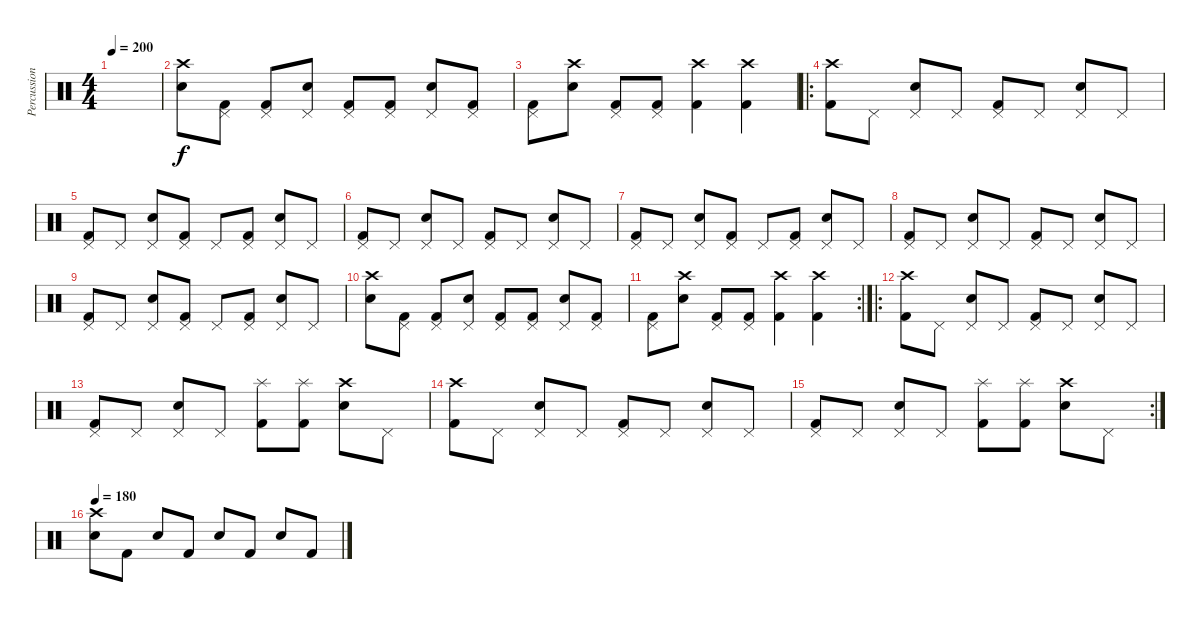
\track ("Percussion" "Percussion") {instrument percussion}
\staff {score}
\articulation defaults
\ts (4 4)
\tempo 200
\clef neutral
\ks c
|
("Electric Snare (hit)" "Crash high (hit)").8 ("Kick (hit) 2" "Pedal Hi-Hat (hit)").8 ("Kick (hit) 2" "Pedal Hi-Hat (hit)").8 ("Electric Snare (hit)" "Pedal Hi-Hat (hit)").8 ("Kick (hit) 2" "Pedal Hi-Hat (hit)").8 ("Kick (hit) 2" "Pedal Hi-Hat (hit)").8 ("Electric Snare (hit)" "Pedal Hi-Hat (hit)").8 ("Kick (hit) 2" "Pedal Hi-Hat (hit)").8 |
("Kick (hit) 2" "Pedal Hi-Hat (hit)").8 ("Electric Snare (hit)" "Crash high (hit)").8 ("Kick (hit) 2" "Pedal Hi-Hat (hit)").8 ("Kick (hit) 2" "Pedal Hi-Hat (hit)").8 ("Kick (hit) 2" "Crash high (hit)").4 ("Kick (hit) 2" "Crash high (hit)").4 |
\ro
("Kick (hit) 2" "Crash high (hit)").8 "Pedal Hi-Hat (hit)".8 ("Electric Snare (hit)" "Pedal Hi-Hat (hit)").8 "Pedal Hi-Hat (hit)".8 ("Kick (hit) 2" "Pedal Hi-Hat (hit)").8 "Pedal Hi-Hat (hit)".8 ("Electric Snare (hit)" "Pedal Hi-Hat (hit)").8 "Pedal Hi-Hat (hit)".8 |
("Kick (hit) 2" "Pedal Hi-Hat (hit)").8 "Pedal Hi-Hat (hit)".8 ("Electric Snare (hit)" "Pedal Hi-Hat (hit)").8 ("Kick (hit) 2" "Pedal Hi-Hat (hit)").8 "Pedal Hi-Hat (hit)".8 ("Kick (hit) 2" "Pedal Hi-Hat (hit)").8 ("Electric Snare (hit)" "Pedal Hi-Hat (hit)").8 "Pedal Hi-Hat (hit)".8 |
("Kick (hit) 2" "Pedal Hi-Hat (hit)").8 "Pedal Hi-Hat (hit)".8 ("Electric Snare (hit)" "Pedal Hi-Hat (hit)").8 "Pedal Hi-Hat (hit)".8 ("Kick (hit) 2" "Pedal Hi-Hat (hit)").8 "Pedal Hi-Hat (hit)".8 ("Electric Snare (hit)" "Pedal Hi-Hat (hit)").8 "Pedal Hi-Hat (hit)".8 |
("Kick (hit) 2" "Pedal Hi-Hat (hit)").8 "Pedal Hi-Hat (hit)".8 ("Electric Snare (hit)" "Pedal Hi-Hat (hit)").8 ("Kick (hit) 2" "Pedal Hi-Hat (hit)").8 "Pedal Hi-Hat (hit)".8 ("Kick (hit) 2" "Pedal Hi-Hat (hit)").8 ("Electric Snare (hit)" "Pedal Hi-Hat (hit)").8 "Pedal Hi-Hat (hit)".8 |
("Kick (hit) 2" "Pedal Hi-Hat (hit)").8 "Pedal Hi-Hat (hit)".8 ("Electric Snare (hit)" "Pedal Hi-Hat (hit)").8 "Pedal Hi-Hat (hit)".8 ("Kick (hit) 2" "Pedal Hi-Hat (hit)").8 "Pedal Hi-Hat (hit)".8 ("Electric Snare (hit)" "Pedal Hi-Hat (hit)").8 "Pedal Hi-Hat (hit)".8 |
("Kick (hit) 2" "Pedal Hi-Hat (hit)").8 "Pedal Hi-Hat (hit)".8 ("Electric Snare (hit)" "Pedal Hi-Hat (hit)").8 ("Kick (hit) 2" "Pedal Hi-Hat (hit)").8 "Pedal Hi-Hat (hit)".8 ("Kick (hit) 2" "Pedal Hi-Hat (hit)").8 ("Electric Snare (hit)" "Pedal Hi-Hat (hit)").8 "Pedal Hi-Hat (hit)".8 |
("Electric Snare (hit)" "Crash high (hit)").8 ("Kick (hit) 2" "Pedal Hi-Hat (hit)").8 ("Kick (hit) 2" "Pedal Hi-Hat (hit)").8 ("Electric Snare (hit)" "Pedal Hi-Hat (hit)").8 ("Kick (hit) 2" "Pedal Hi-Hat (hit)").8 ("Kick (hit) 2" "Pedal Hi-Hat (hit)").8 ("Electric Snare (hit)" "Pedal Hi-Hat (hit)").8 ("Kick (hit) 2" "Pedal Hi-Hat (hit)").8 |
\rc 2
("Kick (hit) 2" "Pedal Hi-Hat (hit)").8 ("Electric Snare (hit)" "Crash high (hit)").8 ("Kick (hit) 2" "Pedal Hi-Hat (hit)").8 ("Kick (hit) 2" "Pedal Hi-Hat (hit)").8 ("Kick (hit) 2" "Crash high (hit)").4 ("Kick (hit) 2" "Crash high (hit)").4 |
\ro
("Kick (hit) 2" "Crash high (hit)").8 "Pedal Hi-Hat (hit)".8 ("Electric Snare (hit)" "Pedal Hi-Hat (hit)").8 "Pedal Hi-Hat (hit)".8 ("Kick (hit) 2" "Pedal Hi-Hat (hit)").8 "Pedal Hi-Hat (hit)".8 ("Electric Snare (hit)" "Pedal Hi-Hat (hit)").8 "Pedal Hi-Hat (hit)".8 |
("Kick (hit) 2" "Pedal Hi-Hat (hit)").8 "Pedal Hi-Hat (hit)".8 ("Electric Snare (hit)" "Pedal Hi-Hat (hit)").8 "Pedal Hi-Hat (hit)".8 ("Kick (hit) 2" "Splash (hit)").8 ("Kick (hit) 2" "Splash (hit)").8 ("Electric Snare (hit)" "Crash high (hit)").8 "Pedal Hi-Hat (hit)".8 |
("Kick (hit) 2" "Crash high (hit)").8 "Pedal Hi-Hat (hit)".8 ("Electric Snare (hit)" "Pedal Hi-Hat (hit)").8 "Pedal Hi-Hat (hit)".8 ("Kick (hit) 2" "Pedal Hi-Hat (hit)").8 "Pedal Hi-Hat (hit)".8 ("Electric Snare (hit)" "Pedal Hi-Hat (hit)").8 "Pedal Hi-Hat (hit)".8 |
\rc 2
("Kick (hit) 2" "Pedal Hi-Hat (hit)").8 "Pedal Hi-Hat (hit)".8 ("Electric Snare (hit)" "Pedal Hi-Hat (hit)").8 "Pedal Hi-Hat (hit)".8 ("Kick (hit) 2" "Splash (hit)").8 ("Kick (hit) 2" "Splash (hit)").8 ("Electric Snare (hit)" "Crash high (hit)").8 "Pedal Hi-Hat (hit)".8 |
\tempo 180
("Electric Snare (hit)" "Crash high (hit)").8 "Kick (hit) 2".8 "Electric Snare (hit)".8 "Kick (hit) 2".8 "Electric Snare (hit)".8 "Kick (hit) 2".8 "Electric Snare (hit)".8 "Kick (hit) 2".8
